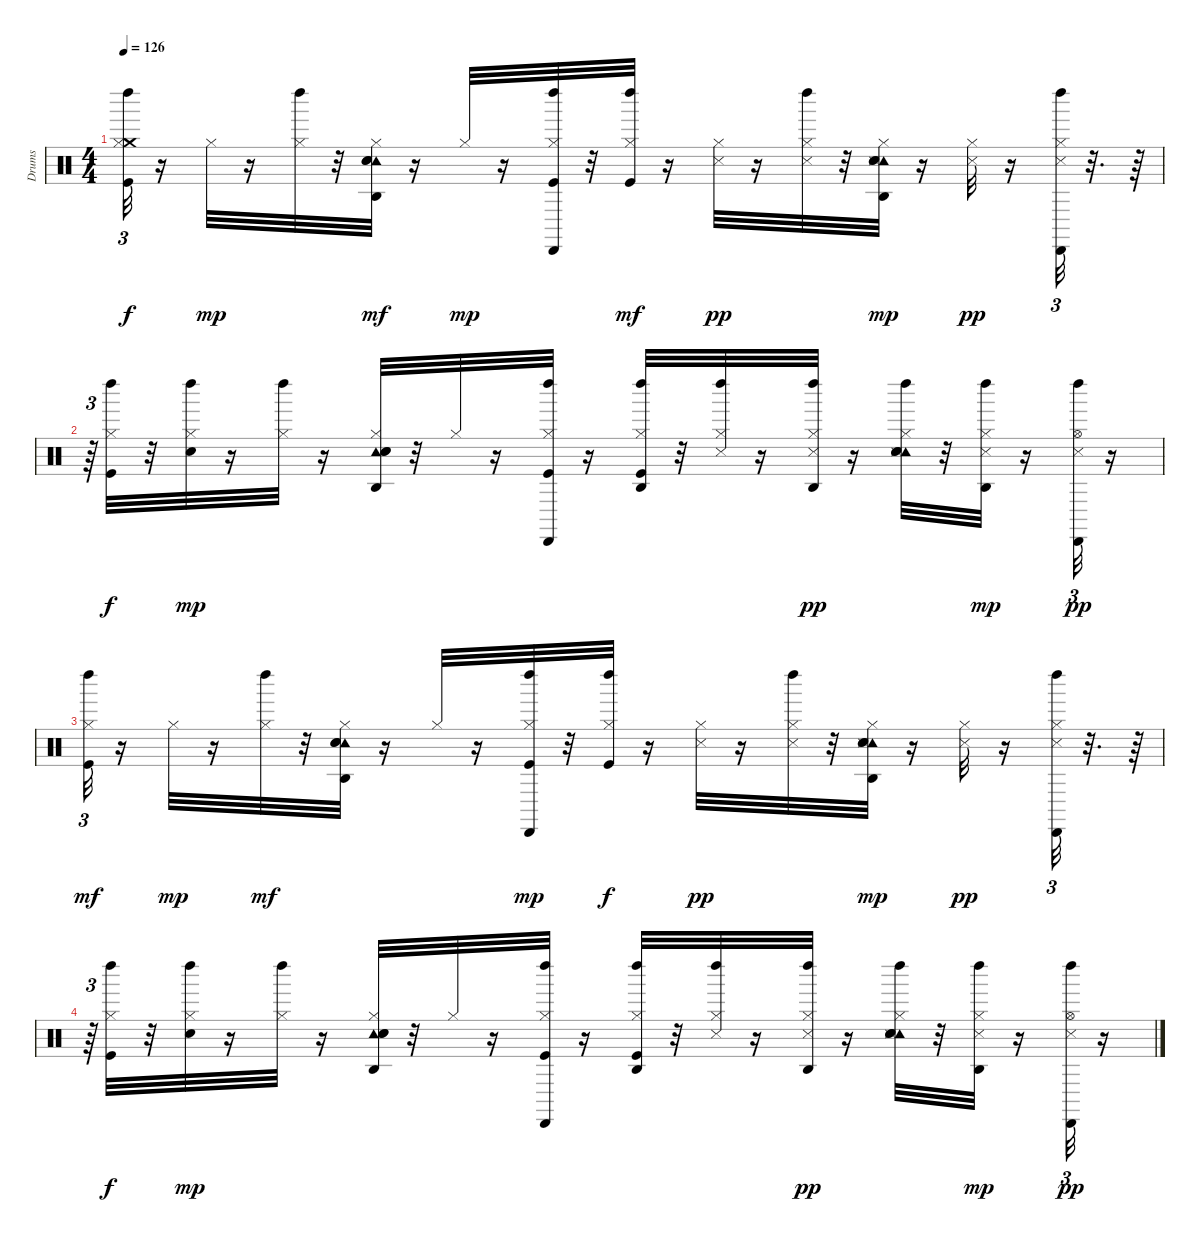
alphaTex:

\track ("Drums" "Drums") {instrument percussion}
\staff {score}
\articulation defaults
\ts (4 4)
\tempo 126
\clef neutral
\ks c
("Crash medium (hit)" "Kick (hit)" "Hi-Hat (closed)" "Left Maraca (hit)").32{tu (3 2) dy f} r.16 "Hi-Hat (closed)".32{dy mp} r.16 ("Hi-Hat (closed)" "Left Maraca (hit)").32 r.32 ("Hi-Hat (closed)" "Tambourine (hit)" "Agogo high (hit)" "Snare (hit) 2" "Hand Clap (hit)").32{dy mf} r.16 "Hi-Hat (closed)".32{dy mp} r.16 ("Cabasa (hit)" "Kick (hit)" "Hi-Hat (closed)" "Left Maraca (hit)").32 r.32 ("Hi-Hat (closed)" "Kick (hit)" "Left Maraca (hit)").32{dy mf} r.16 ("Hi-Hat (closed)" "Snare (side stick) 3").32{dy pp} r.16 ("Hi-Hat (closed)" "Left Maraca (hit)" "Snare (side stick) 3").32 r.32 ("Hi-Hat (closed)" "Tambourine (hit)" "Hand Clap (hit)" "Snare (hit) 2" "Snare (side stick) 3" "Agogo high (hit)").32{dy mp} r.16 ("Hi-Hat (closed)" "Snare (side stick) 3").32{dy pp} r.16 ("Cabasa (hit)" "Hi-Hat (closed)" "Left Maraca (hit)" "Snare (side stick) 3").32{tu (3 2)} r.32{d} r.64 |
r.64{tu (3 2)} ("Kick (hit)" "Hi-Hat (closed)" "Left Maraca (hit)").32{dy f} r.32 ("Electric Snare (hit)" "Hi-Hat (closed)" "Left Maraca (hit)").32{dy mp} r.16 ("Left Maraca (hit)" "Hi-Hat (closed)").32 r.16 ("Tambourine (hit)" "Snare (hit) 2" "Hi-Hat (closed)" "Agogo high (hit)" "Hand Clap (hit)").32 r.32 "Hi-Hat (closed)".32 r.16 ("Kick (hit)" "Hi-Hat (closed)" "Left Maraca (hit)" "Cabasa (hit)").32 r.16 ("Kick (hit)" "Hi-Hat (closed)" "Left Maraca (hit)" "Agogo high (hit)").32 r.32 ("Hi-Hat (closed)" "Snare (side stick) 3" "Left Maraca (hit)").32 r.16 ("Hi-Hat (closed)" "Left Maraca (hit)" "Agogo high (hit)" "Snare (side stick) 3").32{dy pp} r.16 ("Hi-Hat (closed)" "Tambourine (hit)" "Hand Clap (hit)" "Snare (hit) 2" "Snare (side stick) 3" "Left Maraca (hit)").32 r.32 ("Hi-Hat (closed)" "Left Maraca (hit)" "Snare (side stick) 3" "Agogo high (hit)").32{dy mp} r.16 ("Hi-Hat (open)" "Left Maraca (hit)" "Cabasa (hit)" "Snare (side stick) 3").32{tu (3 2) dy pp} r.16 |
("Kick (hit)" "Hi-Hat (closed)" "Left Maraca (hit)").32{tu (3 2) dy mf} r.16 "Hi-Hat (closed)".32{dy mp} r.16 ("Hi-Hat (closed)" "Left Maraca (hit)").32{dy mf} r.32 ("Hi-Hat (closed)" "Tambourine (hit)" "Agogo high (hit)" "Snare (hit) 2" "Hand Clap (hit)").32 r.16 "Hi-Hat (closed)".32 r.16 ("Cabasa (hit)" "Kick (hit)" "Hi-Hat (closed)" "Left Maraca (hit)").32{dy mp} r.32 ("Hi-Hat (closed)" "Kick (hit)" "Left Maraca (hit)").32{dy f} r.16 ("Hi-Hat (closed)" "Snare (side stick) 3").32{dy pp} r.16 ("Hi-Hat (closed)" "Left Maraca (hit)" "Snare (side stick) 3").32 r.32 ("Hi-Hat (closed)" "Tambourine (hit)" "Hand Clap (hit)" "Snare (hit) 2" "Snare (side stick) 3" "Agogo high (hit)").32{dy mp} r.16 ("Hi-Hat (closed)" "Snare (side stick) 3").32{dy pp} r.16 ("Cabasa (hit)" "Hi-Hat (closed)" "Left Maraca (hit)" "Snare (side stick) 3").32{tu (3 2)} r.32{d} r.64 |
r.64{tu (3 2)} ("Kick (hit)" "Hi-Hat (closed)" "Left Maraca (hit)").32{dy f} r.32 ("Electric Snare (hit)" "Hi-Hat (closed)" "Left Maraca (hit)").32{dy mp} r.16 ("Left Maraca (hit)" "Hi-Hat (closed)").32 r.16 ("Tambourine (hit)" "Snare (hit) 2" "Hi-Hat (closed)" "Agogo high (hit)" "Hand Clap (hit)").32 r.32 "Hi-Hat (closed)".32 r.16 ("Kick (hit)" "Hi-Hat (closed)" "Left Maraca (hit)" "Cabasa (hit)").32 r.16 ("Kick (hit)" "Hi-Hat (closed)" "Left Maraca (hit)" "Agogo high (hit)").32 r.32 ("Hi-Hat (closed)" "Snare (side stick) 3" "Left Maraca (hit)").32 r.16 ("Hi-Hat (closed)" "Left Maraca (hit)" "Agogo high (hit)" "Snare (side stick) 3").32{dy pp} r.16 ("Hi-Hat (closed)" "Tambourine (hit)" "Hand Clap (hit)" "Snare (hit) 2" "Snare (side stick) 3" "Left Maraca (hit)").32 r.32 ("Hi-Hat (closed)" "Left Maraca (hit)" "Snare (side stick) 3" "Agogo high (hit)").32{dy mp} r.16 ("Hi-Hat (open)" "Left Maraca (hit)" "Cabasa (hit)" "Snare (side stick) 3").32{tu (3 2) dy pp} r.16
